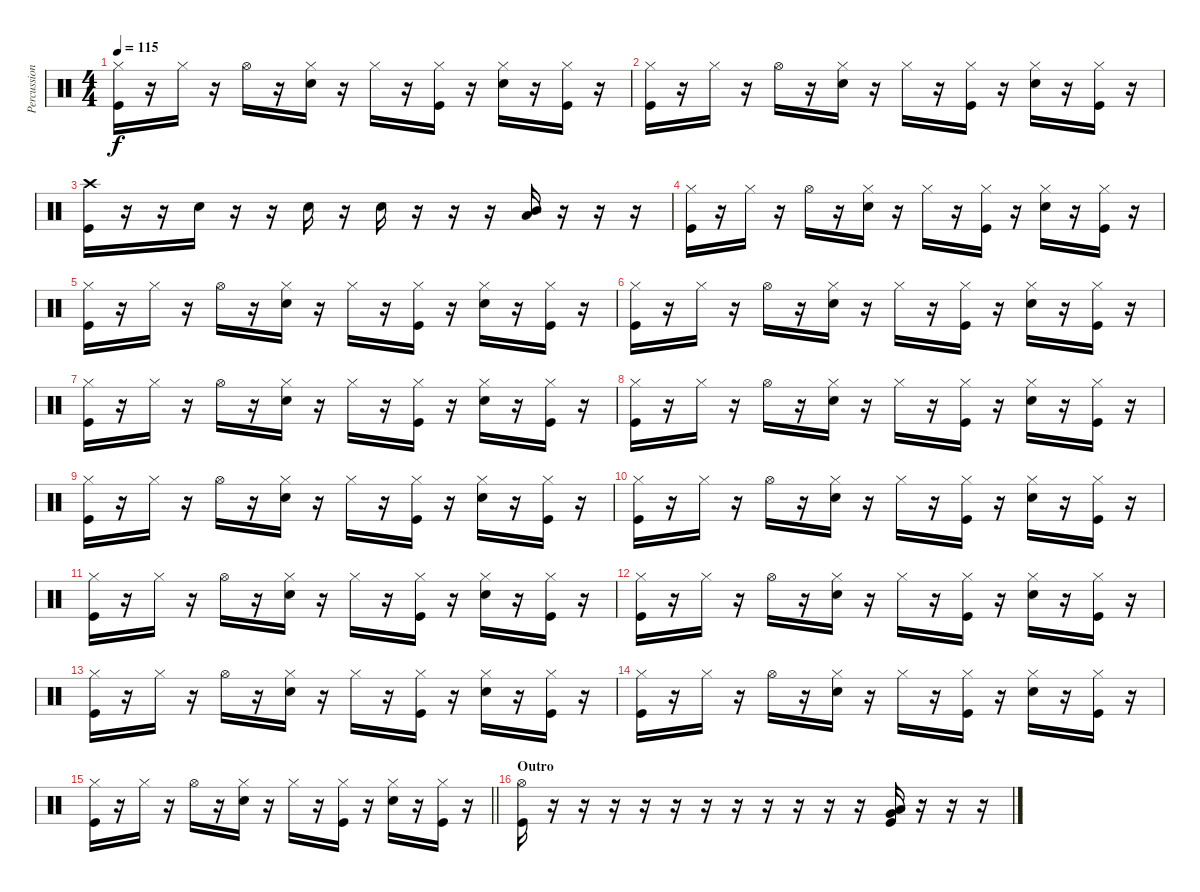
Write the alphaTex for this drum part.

\track ("Percussion" "Percussion") {instrument percussion}
\staff {score}
\articulation defaults
\ts (4 4)
\tempo 115
\clef neutral
\ks c
("Hi-Hat (closed)" "Kick (hit)").16{dy f} r.16 "Hi-Hat (closed)".16 r.16 "Hi-Hat (open)".16 r.16 ("Hi-Hat (closed)" "Snare (hit) 2").16 r.16 "Hi-Hat (closed)".16 r.16 ("Hi-Hat (closed)" "Kick (hit)").16 r.16 ("Hi-Hat (closed)" "Snare (hit) 2").16 r.16 ("Hi-Hat (closed)" "Kick (hit)").16 r.16 |
("Hi-Hat (closed)" "Kick (hit)").16 r.16 "Hi-Hat (closed)".16 r.16 "Hi-Hat (open)".16 r.16 ("Hi-Hat (closed)" "Snare (hit) 2").16 r.16 "Hi-Hat (closed)".16 r.16 ("Hi-Hat (closed)" "Kick (hit)").16 r.16 ("Hi-Hat (closed)" "Snare (hit) 2").16 r.16 ("Hi-Hat (closed)" "Kick (hit)").16 r.16 |
("Crash high (hit)" "Kick (hit)").16 r.16 r.16 "Snare (hit) 2".16 r.16 r.16 "Snare (hit) 2".16 r.16 "Snare (hit) 2".16 r.16 r.16 r.16 ("Mid Tom (hit)" "Low Tom (hit)").16 r.16 r.16 r.16 |
("Hi-Hat (closed)" "Kick (hit)").16 r.16 "Hi-Hat (closed)".16 r.16 "Hi-Hat (open)".16 r.16 ("Hi-Hat (closed)" "Snare (hit) 2").16 r.16 "Hi-Hat (closed)".16 r.16 ("Hi-Hat (closed)" "Kick (hit)").16 r.16 ("Hi-Hat (closed)" "Snare (hit) 2").16 r.16 ("Hi-Hat (closed)" "Kick (hit)").16 r.16 |
("Hi-Hat (closed)" "Kick (hit)").16 r.16 "Hi-Hat (closed)".16 r.16 "Hi-Hat (open)".16 r.16 ("Hi-Hat (closed)" "Snare (hit) 2").16 r.16 "Hi-Hat (closed)".16 r.16 ("Hi-Hat (closed)" "Kick (hit)").16 r.16 ("Hi-Hat (closed)" "Snare (hit) 2").16 r.16 ("Hi-Hat (closed)" "Kick (hit)").16 r.16 |
("Hi-Hat (closed)" "Kick (hit)").16 r.16 "Hi-Hat (closed)".16 r.16 "Hi-Hat (open)".16 r.16 ("Hi-Hat (closed)" "Snare (hit) 2").16 r.16 "Hi-Hat (closed)".16 r.16 ("Hi-Hat (closed)" "Kick (hit)").16 r.16 ("Hi-Hat (closed)" "Snare (hit) 2").16 r.16 ("Hi-Hat (closed)" "Kick (hit)").16 r.16 |
("Hi-Hat (closed)" "Kick (hit)").16 r.16 "Hi-Hat (closed)".16 r.16 "Hi-Hat (open)".16 r.16 ("Hi-Hat (closed)" "Snare (hit) 2").16 r.16 "Hi-Hat (closed)".16 r.16 ("Hi-Hat (closed)" "Kick (hit)").16 r.16 ("Hi-Hat (closed)" "Snare (hit) 2").16 r.16 ("Hi-Hat (closed)" "Kick (hit)").16 r.16 |
("Hi-Hat (closed)" "Kick (hit)").16 r.16 "Hi-Hat (closed)".16 r.16 "Hi-Hat (open)".16 r.16 ("Hi-Hat (closed)" "Snare (hit) 2").16 r.16 "Hi-Hat (closed)".16 r.16 ("Hi-Hat (closed)" "Kick (hit)").16 r.16 ("Hi-Hat (closed)" "Snare (hit) 2").16 r.16 ("Hi-Hat (closed)" "Kick (hit)").16 r.16 |
("Hi-Hat (closed)" "Kick (hit)").16 r.16 "Hi-Hat (closed)".16 r.16 "Hi-Hat (open)".16 r.16 ("Hi-Hat (closed)" "Snare (hit) 2").16 r.16 "Hi-Hat (closed)".16 r.16 ("Hi-Hat (closed)" "Kick (hit)").16 r.16 ("Hi-Hat (closed)" "Snare (hit) 2").16 r.16 ("Hi-Hat (closed)" "Kick (hit)").16 r.16 |
("Hi-Hat (closed)" "Kick (hit)").16 r.16 "Hi-Hat (closed)".16 r.16 "Hi-Hat (open)".16 r.16 ("Hi-Hat (closed)" "Snare (hit) 2").16 r.16 "Hi-Hat (closed)".16 r.16 ("Hi-Hat (closed)" "Kick (hit)").16 r.16 ("Hi-Hat (closed)" "Snare (hit) 2").16 r.16 ("Hi-Hat (closed)" "Kick (hit)").16 r.16 |
("Hi-Hat (closed)" "Kick (hit)").16 r.16 "Hi-Hat (closed)".16 r.16 "Hi-Hat (open)".16 r.16 ("Hi-Hat (closed)" "Snare (hit) 2").16 r.16 "Hi-Hat (closed)".16 r.16 ("Hi-Hat (closed)" "Kick (hit)").16 r.16 ("Hi-Hat (closed)" "Snare (hit) 2").16 r.16 ("Hi-Hat (closed)" "Kick (hit)").16 r.16 |
("Hi-Hat (closed)" "Kick (hit)").16 r.16 "Hi-Hat (closed)".16 r.16 "Hi-Hat (open)".16 r.16 ("Hi-Hat (closed)" "Snare (hit) 2").16 r.16 "Hi-Hat (closed)".16 r.16 ("Hi-Hat (closed)" "Kick (hit)").16 r.16 ("Hi-Hat (closed)" "Snare (hit) 2").16 r.16 ("Hi-Hat (closed)" "Kick (hit)").16 r.16 |
("Hi-Hat (closed)" "Kick (hit)").16 r.16 "Hi-Hat (closed)".16 r.16 "Hi-Hat (open)".16 r.16 ("Hi-Hat (closed)" "Snare (hit) 2").16 r.16 "Hi-Hat (closed)".16 r.16 ("Hi-Hat (closed)" "Kick (hit)").16 r.16 ("Hi-Hat (closed)" "Snare (hit) 2").16 r.16 ("Hi-Hat (closed)" "Kick (hit)").16 r.16 |
("Hi-Hat (closed)" "Kick (hit)").16 r.16 "Hi-Hat (closed)".16 r.16 "Hi-Hat (open)".16 r.16 ("Hi-Hat (closed)" "Snare (hit) 2").16 r.16 "Hi-Hat (closed)".16 r.16 ("Hi-Hat (closed)" "Kick (hit)").16 r.16 ("Hi-Hat (closed)" "Snare (hit) 2").16 r.16 ("Hi-Hat (closed)" "Kick (hit)").16 r.16 |
\barLineRight lightlight
("Hi-Hat (closed)" "Kick (hit)").16 r.16 "Hi-Hat (closed)".16 r.16 "Hi-Hat (open)".16 r.16 ("Hi-Hat (closed)" "Snare (hit) 2").16 r.16 "Hi-Hat (closed)".16 r.16 ("Hi-Hat (closed)" "Kick (hit)").16 r.16 ("Hi-Hat (closed)" "Snare (hit) 2").16 r.16 ("Hi-Hat (closed)" "Kick (hit)").16 r.16 |
\section ("" "Outro")
("Hi-Hat (open)" "Kick (hit)").16 r.16 r.16 r.16 r.16 r.16 r.16 r.16 r.16 r.16 r.16 r.16 ("Low Tom (hit)" "Very Low Tom (hit)" "Kick (hit)").16 r.16 r.16 r.16
